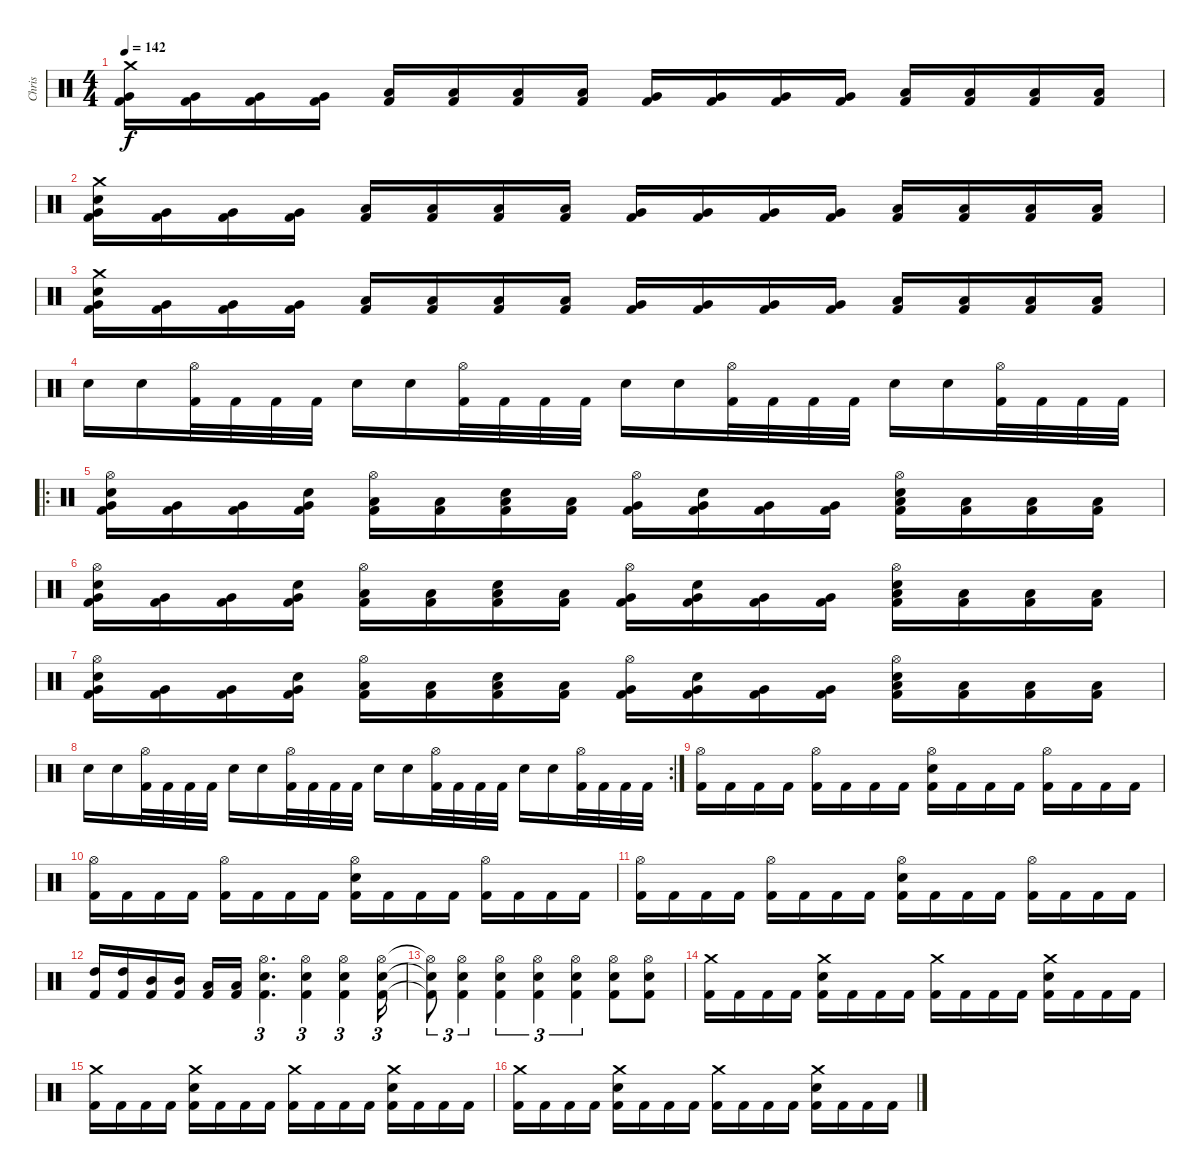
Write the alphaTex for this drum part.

\track ("Chris" "Chris") {instrument percussion}
\staff {score}
\articulation defaults
\ts (4 4)
\tempo 142
\clef neutral
\ks c
("Crash medium (hit)" "Very Low Tom (hit)" "Kick (hit) 2").16{dy f} ("Very Low Tom (hit)" "Kick (hit) 2").16 ("Very Low Tom (hit)" "Kick (hit) 2").16 ("Very Low Tom (hit)" "Kick (hit) 2").16 ("Low Floor Tom (hit)" "Kick (hit) 2").16 ("Low Floor Tom (hit)" "Kick (hit) 2").16 ("Low Floor Tom (hit)" "Kick (hit) 2").16 ("Low Floor Tom (hit)" "Kick (hit) 2").16 ("Very Low Tom (hit)" "Kick (hit) 2").16 ("Very Low Tom (hit)" "Kick (hit) 2").16 ("Very Low Tom (hit)" "Kick (hit) 2").16 ("Very Low Tom (hit)" "Kick (hit) 2").16 ("Low Floor Tom (hit)" "Kick (hit) 2").16 ("Low Floor Tom (hit)" "Kick (hit) 2").16 ("Low Floor Tom (hit)" "Kick (hit) 2").16 ("Low Floor Tom (hit)" "Kick (hit) 2").16 |
("Crash medium (hit)" "Snare (hit) 2" "Very Low Tom (hit)" "Kick (hit) 2").16 ("Very Low Tom (hit)" "Kick (hit) 2").16 ("Very Low Tom (hit)" "Kick (hit) 2").16 ("Very Low Tom (hit)" "Kick (hit) 2").16 ("Low Floor Tom (hit)" "Kick (hit) 2").16 ("Low Floor Tom (hit)" "Kick (hit) 2").16 ("Low Floor Tom (hit)" "Kick (hit) 2").16 ("Low Floor Tom (hit)" "Kick (hit) 2").16 ("Very Low Tom (hit)" "Kick (hit) 2").16 ("Very Low Tom (hit)" "Kick (hit) 2").16 ("Very Low Tom (hit)" "Kick (hit) 2").16 ("Very Low Tom (hit)" "Kick (hit) 2").16 ("Low Floor Tom (hit)" "Kick (hit) 2").16 ("Low Floor Tom (hit)" "Kick (hit) 2").16 ("Low Floor Tom (hit)" "Kick (hit) 2").16 ("Low Floor Tom (hit)" "Kick (hit) 2").16 |
("Crash medium (hit)" "Snare (hit) 2" "Very Low Tom (hit)" "Kick (hit) 2").16 ("Very Low Tom (hit)" "Kick (hit) 2").16 ("Very Low Tom (hit)" "Kick (hit) 2").16 ("Very Low Tom (hit)" "Kick (hit) 2").16 ("Low Floor Tom (hit)" "Kick (hit) 2").16 ("Low Floor Tom (hit)" "Kick (hit) 2").16 ("Low Floor Tom (hit)" "Kick (hit) 2").16 ("Low Floor Tom (hit)" "Kick (hit) 2").16 ("Very Low Tom (hit)" "Kick (hit) 2").16 ("Very Low Tom (hit)" "Kick (hit) 2").16 ("Very Low Tom (hit)" "Kick (hit) 2").16 ("Very Low Tom (hit)" "Kick (hit) 2").16 ("Low Floor Tom (hit)" "Kick (hit) 2").16 ("Low Floor Tom (hit)" "Kick (hit) 2").16 ("Low Floor Tom (hit)" "Kick (hit) 2").16 ("Low Floor Tom (hit)" "Kick (hit) 2").16 |
"Snare (hit) 2".16 "Snare (hit) 2".16 ("Hi-Hat (open)" "Kick (hit) 2").32 "Kick (hit) 2".32 "Kick (hit) 2".32 "Kick (hit) 2".32 "Snare (hit) 2".16 "Snare (hit) 2".16 ("Hi-Hat (open)" "Kick (hit) 2").32 "Kick (hit) 2".32 "Kick (hit) 2".32 "Kick (hit) 2".32 "Snare (hit) 2".16 "Snare (hit) 2".16 ("Hi-Hat (open)" "Kick (hit) 2").32 "Kick (hit) 2".32 "Kick (hit) 2".32 "Kick (hit) 2".32 "Snare (hit) 2".16 "Snare (hit) 2".16 ("Hi-Hat (open)" "Kick (hit) 2").32 "Kick (hit) 2".32 "Kick (hit) 2".32 "Kick (hit) 2".32 |
\ro
("Hi-Hat (open)" "Snare (hit) 2" "Very Low Tom (hit)" "Kick (hit) 2").16 ("Very Low Tom (hit)" "Kick (hit) 2").16 ("Very Low Tom (hit)" "Kick (hit) 2").16 ("Snare (hit) 2" "Very Low Tom (hit)" "Kick (hit) 2").16 ("Hi-Hat (open)" "Low Floor Tom (hit)" "Kick (hit) 2").16 ("Low Floor Tom (hit)" "Kick (hit) 2").16 ("Snare (hit) 2" "Low Floor Tom (hit)" "Kick (hit) 2").16 ("Low Floor Tom (hit)" "Kick (hit) 2").16 ("Hi-Hat (open)" "Very Low Tom (hit)" "Kick (hit) 2").16 ("Snare (hit) 2" "Very Low Tom (hit)" "Kick (hit) 2").16 ("Very Low Tom (hit)" "Kick (hit) 2").16 ("Very Low Tom (hit)" "Kick (hit) 2").16 ("Hi-Hat (open)" "Snare (hit) 2" "Low Floor Tom (hit)" "Kick (hit) 2").16 ("Low Floor Tom (hit)" "Kick (hit) 2").16 ("Low Floor Tom (hit)" "Kick (hit) 2").16 ("Low Floor Tom (hit)" "Kick (hit) 2").16 |
("Hi-Hat (open)" "Snare (hit) 2" "Very Low Tom (hit)" "Kick (hit) 2").16 ("Very Low Tom (hit)" "Kick (hit) 2").16 ("Very Low Tom (hit)" "Kick (hit) 2").16 ("Snare (hit) 2" "Very Low Tom (hit)" "Kick (hit) 2").16 ("Hi-Hat (open)" "Low Floor Tom (hit)" "Kick (hit) 2").16 ("Low Floor Tom (hit)" "Kick (hit) 2").16 ("Snare (hit) 2" "Low Floor Tom (hit)" "Kick (hit) 2").16 ("Low Floor Tom (hit)" "Kick (hit) 2").16 ("Hi-Hat (open)" "Very Low Tom (hit)" "Kick (hit) 2").16 ("Snare (hit) 2" "Very Low Tom (hit)" "Kick (hit) 2").16 ("Very Low Tom (hit)" "Kick (hit) 2").16 ("Very Low Tom (hit)" "Kick (hit) 2").16 ("Hi-Hat (open)" "Snare (hit) 2" "Low Floor Tom (hit)" "Kick (hit) 2").16 ("Low Floor Tom (hit)" "Kick (hit) 2").16 ("Low Floor Tom (hit)" "Kick (hit) 2").16 ("Low Floor Tom (hit)" "Kick (hit) 2").16 |
("Hi-Hat (open)" "Snare (hit) 2" "Very Low Tom (hit)" "Kick (hit) 2").16 ("Very Low Tom (hit)" "Kick (hit) 2").16 ("Very Low Tom (hit)" "Kick (hit) 2").16 ("Snare (hit) 2" "Very Low Tom (hit)" "Kick (hit) 2").16 ("Hi-Hat (open)" "Low Floor Tom (hit)" "Kick (hit) 2").16 ("Low Floor Tom (hit)" "Kick (hit) 2").16 ("Snare (hit) 2" "Low Floor Tom (hit)" "Kick (hit) 2").16 ("Low Floor Tom (hit)" "Kick (hit) 2").16 ("Hi-Hat (open)" "Very Low Tom (hit)" "Kick (hit) 2").16 ("Snare (hit) 2" "Very Low Tom (hit)" "Kick (hit) 2").16 ("Very Low Tom (hit)" "Kick (hit) 2").16 ("Very Low Tom (hit)" "Kick (hit) 2").16 ("Hi-Hat (open)" "Snare (hit) 2" "Low Floor Tom (hit)" "Kick (hit) 2").16 ("Low Floor Tom (hit)" "Kick (hit) 2").16 ("Low Floor Tom (hit)" "Kick (hit) 2").16 ("Low Floor Tom (hit)" "Kick (hit) 2").16 |
\rc 2 "Snare (hit) 2".16 "Snare (hit) 2".16
("Hi-Hat (open)" "Kick (hit) 2").32 "Kick (hit) 2".32 "Kick (hit) 2".32 "Kick (hit) 2".32 "Snare (hit) 2".16 "Snare (hit) 2".16 ("Hi-Hat (open)" "Kick (hit) 2").32 "Kick (hit) 2".32 "Kick (hit) 2".32 "Kick (hit) 2".32 "Snare (hit) 2".16 "Snare (hit) 2".16 ("Hi-Hat (open)" "Kick (hit) 2").32 "Kick (hit) 2".32 "Kick (hit) 2".32 "Kick (hit) 2".32 "Snare (hit) 2".16 "Snare (hit) 2".16 ("Hi-Hat (open)" "Kick (hit) 2").32 "Kick (hit) 2".32 "Kick (hit) 2".32 "Kick (hit) 2".32 |
("Hi-Hat (open)" "Kick (hit) 2").16 "Kick (hit) 2".16 "Kick (hit) 2".16 "Kick (hit) 2".16 ("Hi-Hat (open)" "Kick (hit) 2").16 "Kick (hit) 2".16 "Kick (hit) 2".16 "Kick (hit) 2".16 ("Hi-Hat (open)" "Snare (hit) 2" "Kick (hit) 2").16 "Kick (hit) 2".16 "Kick (hit) 2".16 "Kick (hit) 2".16 ("Hi-Hat (open)" "Kick (hit) 2").16 "Kick (hit) 2".16 "Kick (hit) 2".16 "Kick (hit) 2".16 |
("Hi-Hat (open)" "Kick (hit) 2").16 "Kick (hit) 2".16 "Kick (hit) 2".16 "Kick (hit) 2".16 ("Hi-Hat (open)" "Kick (hit) 2").16 "Kick (hit) 2".16 "Kick (hit) 2".16 "Kick (hit) 2".16 ("Hi-Hat (open)" "Snare (hit) 2" "Kick (hit) 2").16 "Kick (hit) 2".16 "Kick (hit) 2".16 "Kick (hit) 2".16 ("Hi-Hat (open)" "Kick (hit) 2").16 "Kick (hit) 2".16 "Kick (hit) 2".16 "Kick (hit) 2".16 |
("Hi-Hat (open)" "Kick (hit) 2").16 "Kick (hit) 2".16 "Kick (hit) 2".16 "Kick (hit) 2".16 ("Hi-Hat (open)" "Kick (hit) 2").16 "Kick (hit) 2".16 "Kick (hit) 2".16 "Kick (hit) 2".16 ("Hi-Hat (open)" "Snare (hit) 2" "Kick (hit) 2").16 "Kick (hit) 2".16 "Kick (hit) 2".16 "Kick (hit) 2".16 ("Hi-Hat (open)" "Kick (hit) 2").16 "Kick (hit) 2".16 "Kick (hit) 2".16 "Kick (hit) 2".16 |
("High Tom (hit)" "Kick (hit) 2").16 ("High Tom (hit)" "Kick (hit) 2").16 ("Mid Tom (hit)" "Kick (hit) 2").16 ("Mid Tom (hit)" "Kick (hit) 2").16 ("Low Tom (hit)" "Kick (hit) 2").16 ("Low Tom (hit)" "Kick (hit) 2").16 ("Hi-Hat (open)" "Snare (hit) 2" "Kick (hit) 2").4{d tu (3 2)} ("Hi-Hat (open)" "Snare (hit) 2" "Kick (hit) 2").4{tu (3 2)} ("Hi-Hat (open)" "Snare (hit) 2" "Kick (hit) 2").4{tu (3 2)} ("Hi-Hat (open)" "Snare (hit) 2" "Kick (hit) 2").16{tu (3 2)} |
("Hi-Hat (open)"{t} "Snare (hit) 2"{t} "Kick (hit) 2"{t}).8{tu (3 2)} ("Hi-Hat (open)" "Snare (hit) 2" "Kick (hit) 2").4{tu (3 2)} ("Hi-Hat (open)" "Snare (hit) 2" "Kick (hit) 2").4{tu (3 2)} ("Hi-Hat (open)" "Snare (hit) 2" "Kick (hit) 2").4{tu (3 2)} ("Hi-Hat (open)" "Snare (hit) 2" "Kick (hit) 2").4{tu (3 2)} ("Hi-Hat (open)" "Snare (hit) 2" "Kick (hit) 2").8 ("Hi-Hat (open)" "Snare (hit) 2" "Kick (hit) 2").8 |
("Crash medium (hit)" "Kick (hit) 2").16 "Kick (hit) 2".16 "Kick (hit) 2".16 "Kick (hit) 2".16 ("Crash medium (hit)" "Snare (hit) 2" "Kick (hit) 2").16 "Kick (hit) 2".16 "Kick (hit) 2".16 "Kick (hit) 2".16 ("Crash medium (hit)" "Kick (hit) 2").16 "Kick (hit) 2".16 "Kick (hit) 2".16 "Kick (hit) 2".16 ("Crash medium (hit)" "Snare (hit) 2" "Kick (hit) 2").16 "Kick (hit) 2".16 "Kick (hit) 2".16 "Kick (hit) 2".16 |
("Crash medium (hit)" "Kick (hit) 2").16 "Kick (hit) 2".16 "Kick (hit) 2".16 "Kick (hit) 2".16 ("Crash medium (hit)" "Snare (hit) 2" "Kick (hit) 2").16 "Kick (hit) 2".16 "Kick (hit) 2".16 "Kick (hit) 2".16 ("Crash medium (hit)" "Kick (hit) 2").16 "Kick (hit) 2".16 "Kick (hit) 2".16 "Kick (hit) 2".16 ("Crash medium (hit)" "Snare (hit) 2" "Kick (hit) 2").16 "Kick (hit) 2".16 "Kick (hit) 2".16 "Kick (hit) 2".16 |
("Crash medium (hit)" "Kick (hit) 2").16 "Kick (hit) 2".16 "Kick (hit) 2".16 "Kick (hit) 2".16 ("Crash medium (hit)" "Snare (hit) 2" "Kick (hit) 2").16 "Kick (hit) 2".16 "Kick (hit) 2".16 "Kick (hit) 2".16 ("Crash medium (hit)" "Kick (hit) 2").16 "Kick (hit) 2".16 "Kick (hit) 2".16 "Kick (hit) 2".16 ("Crash medium (hit)" "Snare (hit) 2" "Kick (hit) 2").16 "Kick (hit) 2".16 "Kick (hit) 2".16 "Kick (hit) 2".16
